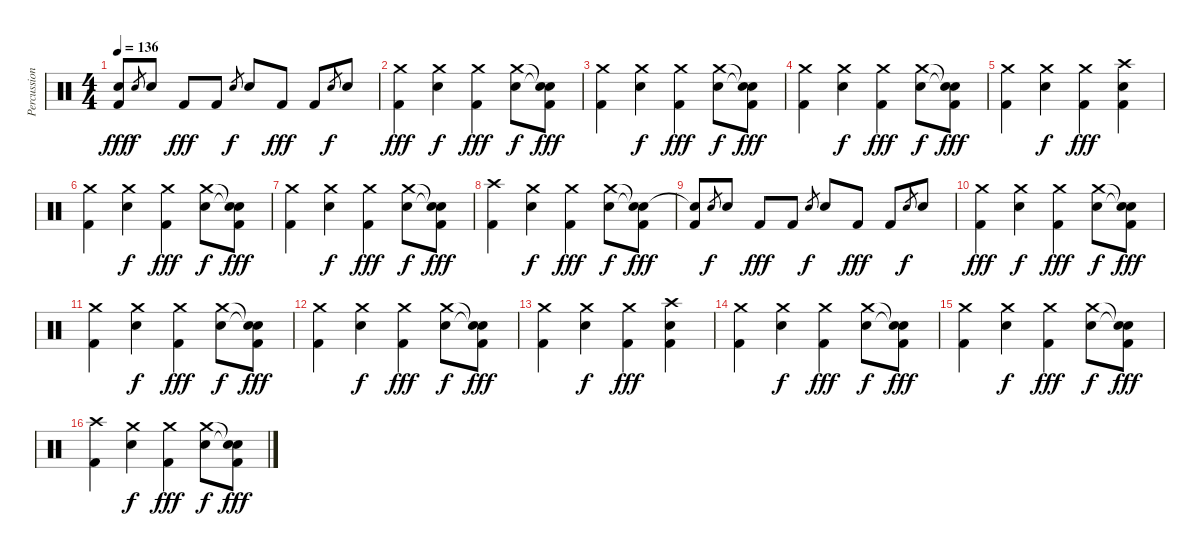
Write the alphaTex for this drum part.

\track ("Percussion" "Percussion") {instrument percussion}
\staff {score}
\articulation defaults
\ts (4 4)
\tempo 136
\clef neutral
\ks c
("Snare (hit)"{t} "Kick (hit) 2").8{dy fff} "Electric Snare (hit)".8{gr dy f} "Electric Snare (hit)".8 "Kick (hit) 2".8{dy fff} "Kick (hit) 2".8 "Electric Snare (hit)".8{gr dy f} "Electric Snare (hit)".8 "Kick (hit) 2".8{dy fff} "Kick (hit) 2".8 "Electric Snare (hit)".8{gr dy f} "Electric Snare (hit)".8 |
("Crash medium (hit)" "Kick (hit) 2").4{dy fff} ("Crash medium (hit)" "Electric Snare (hit)").4{dy f} ("Crash medium (hit)" "Kick (hit) 2").4{dy fff} ("Crash medium (hit)" "Electric Snare (hit)").8{dy f} ("Snare (hit)"{t} "Snare (hit)"{t} "Kick (hit) 2").8{dy fff} |
("Crash medium (hit)" "Kick (hit) 2").4 ("Crash medium (hit)" "Electric Snare (hit)").4{dy f} ("Crash medium (hit)" "Kick (hit) 2").4{dy fff} ("Crash medium (hit)" "Electric Snare (hit)").8{dy f} ("Snare (hit)"{t} "Snare (hit)"{t} "Kick (hit) 2").8{dy fff} |
("Crash medium (hit)" "Kick (hit) 2").4 ("Crash medium (hit)" "Electric Snare (hit)").4{dy f} ("Crash medium (hit)" "Kick (hit) 2").4{dy fff} ("Crash medium (hit)" "Electric Snare (hit)").8{dy f} ("Snare (hit)"{t} "Snare (hit)"{t} "Kick (hit) 2").8{dy fff} |
("Crash medium (hit)" "Kick (hit) 2").4 ("Crash medium (hit)" "Electric Snare (hit)").4{dy f} ("Crash medium (hit)" "Kick (hit) 2").4{dy fff} ("Crash high (hit)" "Electric Snare (hit)" "Kick (hit) 2").4 |
("Crash medium (hit)" "Kick (hit) 2").4 ("Crash medium (hit)" "Electric Snare (hit)").4{dy f} ("Crash medium (hit)" "Kick (hit) 2").4{dy fff} ("Crash medium (hit)" "Electric Snare (hit)").8{dy f} ("Snare (hit)"{t} "Snare (hit)"{t} "Kick (hit) 2").8{dy fff} |
("Crash medium (hit)" "Kick (hit) 2").4 ("Crash medium (hit)" "Electric Snare (hit)").4{dy f} ("Crash medium (hit)" "Kick (hit) 2").4{dy fff} ("Crash medium (hit)" "Electric Snare (hit)").8{dy f} ("Snare (hit)"{t} "Snare (hit)"{t} "Kick (hit) 2").8{dy fff} |
("Crash high (hit)" "Kick (hit) 2").4 ("Crash medium (hit)" "Electric Snare (hit)").4{dy f} ("Crash medium (hit)" "Kick (hit) 2").4{dy fff} ("Crash medium (hit)" "Electric Snare (hit)").8{dy f} ("Snare (hit)"{t} "Snare (hit)"{t} "Kick (hit) 2").8{dy fff} |
("Snare (hit)"{t} "Kick (hit) 2").8 "Electric Snare (hit)".8{gr dy f} "Electric Snare (hit)".8 "Kick (hit) 2".8{dy fff} "Kick (hit) 2".8 "Electric Snare (hit)".8{gr dy f} "Electric Snare (hit)".8 "Kick (hit) 2".8{dy fff} "Kick (hit) 2".8 "Electric Snare (hit)".8{gr dy f} "Electric Snare (hit)".8 |
("Crash medium (hit)" "Kick (hit) 2").4{dy fff} ("Crash medium (hit)" "Electric Snare (hit)").4{dy f} ("Crash medium (hit)" "Kick (hit) 2").4{dy fff} ("Crash medium (hit)" "Electric Snare (hit)").8{dy f} ("Snare (hit)"{t} "Snare (hit)"{t} "Kick (hit) 2").8{dy fff} |
("Crash medium (hit)" "Kick (hit) 2").4 ("Crash medium (hit)" "Electric Snare (hit)").4{dy f} ("Crash medium (hit)" "Kick (hit) 2").4{dy fff} ("Crash medium (hit)" "Electric Snare (hit)").8{dy f} ("Snare (hit)"{t} "Snare (hit)"{t} "Kick (hit) 2").8{dy fff} |
("Crash medium (hit)" "Kick (hit) 2").4 ("Crash medium (hit)" "Electric Snare (hit)").4{dy f} ("Crash medium (hit)" "Kick (hit) 2").4{dy fff} ("Crash medium (hit)" "Electric Snare (hit)").8{dy f} ("Snare (hit)"{t} "Snare (hit)"{t} "Kick (hit) 2").8{dy fff} |
("Crash medium (hit)" "Kick (hit) 2").4 ("Crash medium (hit)" "Electric Snare (hit)").4{dy f} ("Crash medium (hit)" "Kick (hit) 2").4{dy fff} ("Crash high (hit)" "Electric Snare (hit)" "Kick (hit) 2").4 |
("Crash medium (hit)" "Kick (hit) 2").4 ("Crash medium (hit)" "Electric Snare (hit)").4{dy f} ("Crash medium (hit)" "Kick (hit) 2").4{dy fff} ("Crash medium (hit)" "Electric Snare (hit)").8{dy f} ("Snare (hit)"{t} "Snare (hit)"{t} "Kick (hit) 2").8{dy fff} |
("Crash medium (hit)" "Kick (hit) 2").4 ("Crash medium (hit)" "Electric Snare (hit)").4{dy f} ("Crash medium (hit)" "Kick (hit) 2").4{dy fff} ("Crash medium (hit)" "Electric Snare (hit)").8{dy f} ("Snare (hit)"{t} "Snare (hit)"{t} "Kick (hit) 2").8{dy fff} |
("Crash high (hit)" "Kick (hit) 2").4 ("Crash medium (hit)" "Electric Snare (hit)").4{dy f} ("Crash medium (hit)" "Kick (hit) 2").4{dy fff} ("Crash medium (hit)" "Electric Snare (hit)").8{dy f} ("Snare (hit)"{t} "Snare (hit)"{t} "Kick (hit) 2").8{dy fff}
